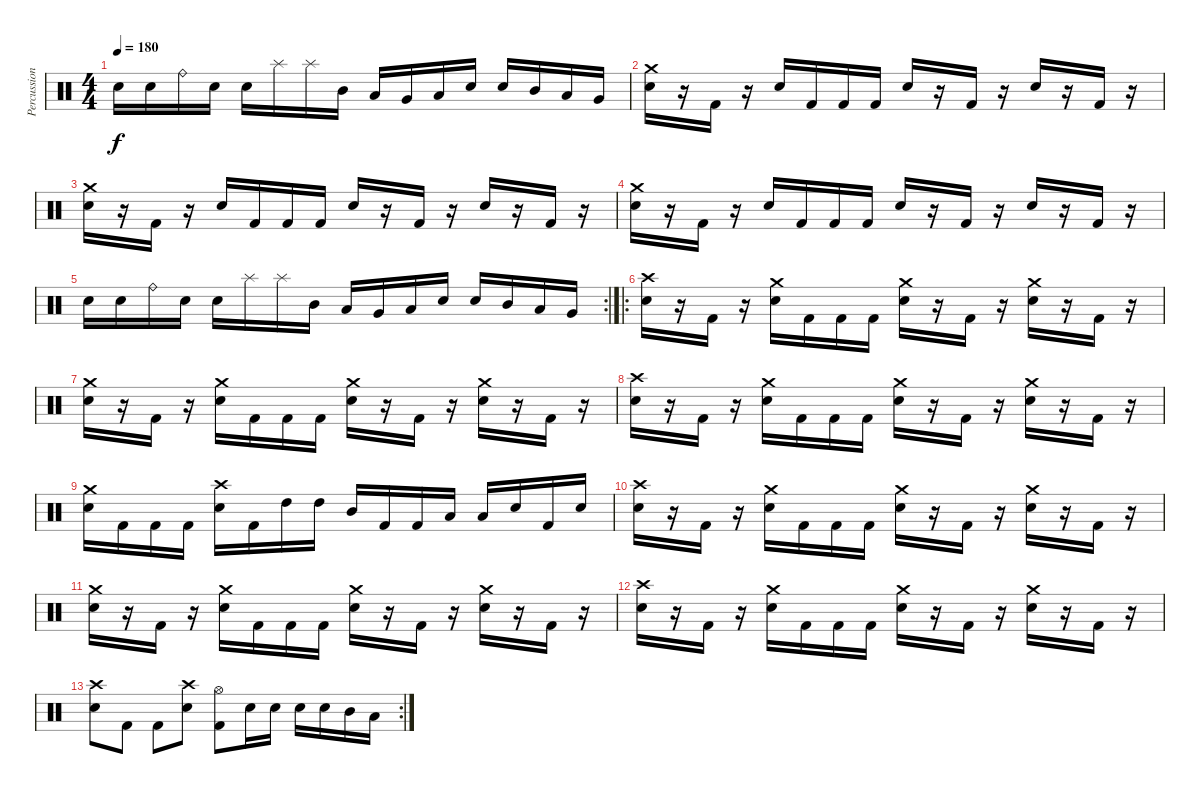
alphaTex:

\track ("Percussion" "Percussion") {instrument percussion}
\staff {score}
\articulation defaults
\ts (4 4)
\tempo 180
\clef neutral
\ks c "Electric Snare (hit)".16{dy f} "Electric Snare (hit)".16 "Ride (bell)".16 "Electric Snare (hit)".16 "Electric Snare (hit)".16 "Splash (hit)".16 "Splash (hit)".16 "Mid Tom (hit)".16 "Low Tom (hit)".16 "Very Low Tom (hit)".16 "Low Floor Tom (hit)".16 "Electric Snare (hit)".16 "Electric Snare (hit)".16 "Mid Tom (hit)".16 "Low Tom (hit)".16 "Very Low Tom (hit)".16
|
("Crash medium (hit)" "Electric Snare (hit)").16 r.16 "Kick (hit) 2".16 r.16 "Electric Snare (hit)".16 "Kick (hit) 2".16 "Kick (hit) 2".16 "Kick (hit) 2".16 "Electric Snare (hit)".16 r.16 "Kick (hit) 2".16 r.16 "Electric Snare (hit)".16 r.16 "Kick (hit) 2".16 r.16 |
("Crash medium (hit)" "Electric Snare (hit)").16 r.16 "Kick (hit) 2".16 r.16 "Electric Snare (hit)".16 "Kick (hit) 2".16 "Kick (hit) 2".16 "Kick (hit) 2".16 "Electric Snare (hit)".16 r.16 "Kick (hit) 2".16 r.16 "Electric Snare (hit)".16 r.16 "Kick (hit) 2".16 r.16 |
("Crash medium (hit)" "Electric Snare (hit)").16 r.16 "Kick (hit) 2".16 r.16 "Electric Snare (hit)".16 "Kick (hit) 2".16 "Kick (hit) 2".16 "Kick (hit) 2".16 "Electric Snare (hit)".16 r.16 "Kick (hit) 2".16 r.16 "Electric Snare (hit)".16 r.16 "Kick (hit) 2".16 r.16 |
\rc 2 "Electric Snare (hit)".16 "Electric Snare (hit)".16 "Ride (bell)".16 "Electric Snare (hit)".16 "Electric Snare (hit)".16 "Splash (hit)".16 "Splash (hit)".16 "Mid Tom (hit)".16 "Low Tom (hit)".16 "Very Low Tom (hit)".16 "Low Floor Tom (hit)".16 "Electric Snare (hit)".16 "Electric Snare (hit)".16 "Mid Tom (hit)".16 "Low Tom (hit)".16 "Very Low Tom (hit)".16
|
\ro
("Crash high (hit)" "Electric Snare (hit)").16 r.16 "Kick (hit) 2".16 r.16 ("Crash medium (hit)" "Electric Snare (hit)").16 "Kick (hit) 2".16 "Kick (hit) 2".16 "Kick (hit) 2".16 ("Crash medium (hit)" "Electric Snare (hit)").16 r.16 "Kick (hit) 2".16 r.16 ("Crash medium (hit)" "Electric Snare (hit)").16 r.16 "Kick (hit) 2".16 r.16 |
("Crash medium (hit)" "Electric Snare (hit)").16 r.16 "Kick (hit) 2".16 r.16 ("Crash medium (hit)" "Electric Snare (hit)").16 "Kick (hit) 2".16 "Kick (hit) 2".16 "Kick (hit) 2".16 ("Crash medium (hit)" "Electric Snare (hit)").16 r.16 "Kick (hit) 2".16 r.16 ("Crash medium (hit)" "Electric Snare (hit)").16 r.16 "Kick (hit) 2".16 r.16 |
("Crash high (hit)" "Electric Snare (hit)").16 r.16 "Kick (hit) 2".16 r.16 ("Crash medium (hit)" "Electric Snare (hit)").16 "Kick (hit) 2".16 "Kick (hit) 2".16 "Kick (hit) 2".16 ("Crash medium (hit)" "Electric Snare (hit)").16 r.16 "Kick (hit) 2".16 r.16 ("Crash medium (hit)" "Electric Snare (hit)").16 r.16 "Kick (hit) 2".16 r.16 |
("Crash medium (hit)" "Electric Snare (hit)").16 "Kick (hit) 2".16 "Kick (hit) 2".16 "Kick (hit) 2".16 ("Crash high (hit)" "Electric Snare (hit)").16 "Kick (hit) 2".16 "High Tom (hit)".16 "High Tom (hit)".16 "Mid Tom (hit)".16 "Kick (hit) 2".16 "Kick (hit) 2".16 "Low Tom (hit)".16 "Low Tom (hit)".16 "Electric Snare (hit)".16 "Kick (hit) 2".16 "Electric Snare (hit)".16 |
("Crash high (hit)" "Electric Snare (hit)").16 r.16 "Kick (hit) 2".16 r.16 ("Crash medium (hit)" "Electric Snare (hit)").16 "Kick (hit) 2".16 "Kick (hit) 2".16 "Kick (hit) 2".16 ("Crash medium (hit)" "Electric Snare (hit)").16 r.16 "Kick (hit) 2".16 r.16 ("Crash medium (hit)" "Electric Snare (hit)").16 r.16 "Kick (hit) 2".16 r.16 |
("Crash medium (hit)" "Electric Snare (hit)").16 r.16 "Kick (hit) 2".16 r.16 ("Crash medium (hit)" "Electric Snare (hit)").16 "Kick (hit) 2".16 "Kick (hit) 2".16 "Kick (hit) 2".16 ("Crash medium (hit)" "Electric Snare (hit)").16 r.16 "Kick (hit) 2".16 r.16 ("Crash medium (hit)" "Electric Snare (hit)").16 r.16 "Kick (hit) 2".16 r.16 |
("Crash high (hit)" "Electric Snare (hit)").16 r.16 "Kick (hit) 2".16 r.16 ("Crash medium (hit)" "Electric Snare (hit)").16 "Kick (hit) 2".16 "Kick (hit) 2".16 "Kick (hit) 2".16 ("Crash medium (hit)" "Electric Snare (hit)").16 r.16 "Kick (hit) 2".16 r.16 ("Crash medium (hit)" "Electric Snare (hit)").16 r.16 "Kick (hit) 2".16 r.16 |
\rc 2
("Crash high (hit)" "Electric Snare (hit)").8 "Kick (hit) 2".8 "Kick (hit) 2".8 ("Crash high (hit)" "Electric Snare (hit)").8 ("Hi-Hat (open)" "Kick (hit) 2").8 "Electric Snare (hit)".16 "Electric Snare (hit)".16 "Electric Snare (hit)".16 "Electric Snare (hit)".16 "Mid Tom (hit)".16 "Low Tom (hit)".16
